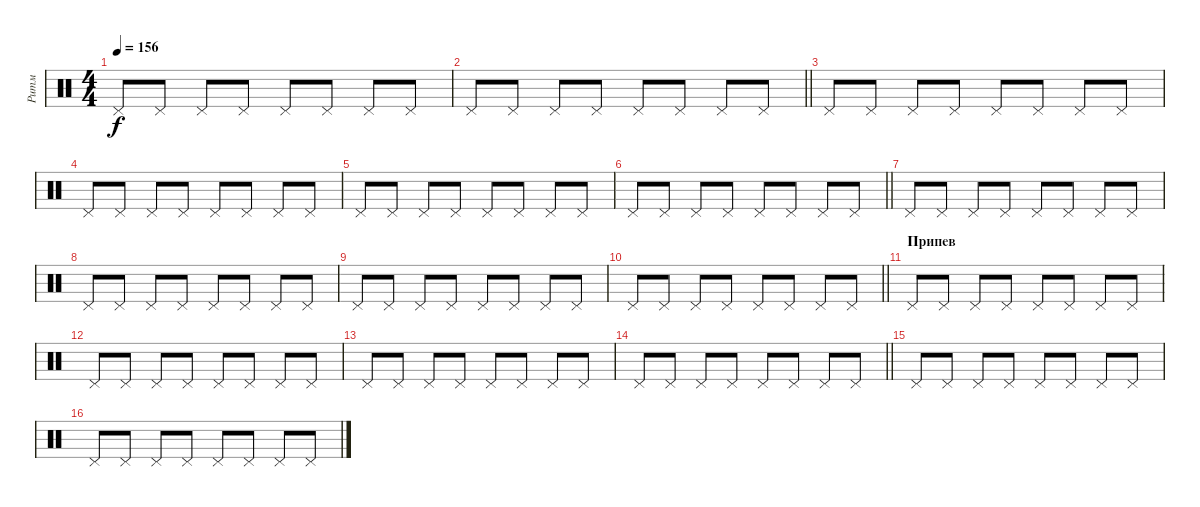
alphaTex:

\track ("Ритм" "Ритм") {instrument percussion}
\staff {score}
\articulation defaults
\ts (4 4)
\tempo 156
\clef neutral
\ks c "Pedal Hi-Hat (hit)".8{dy f} "Pedal Hi-Hat (hit)".8 "Pedal Hi-Hat (hit)".8 "Pedal Hi-Hat (hit)".8 "Pedal Hi-Hat (hit)".8 "Pedal Hi-Hat (hit)".8 "Pedal Hi-Hat (hit)".8 "Pedal Hi-Hat (hit)".8
|
\barLineRight lightlight "Pedal Hi-Hat (hit)".8 "Pedal Hi-Hat (hit)".8 "Pedal Hi-Hat (hit)".8 "Pedal Hi-Hat (hit)".8 "Pedal Hi-Hat (hit)".8 "Pedal Hi-Hat (hit)".8 "Pedal Hi-Hat (hit)".8 "Pedal Hi-Hat (hit)".8
|
"Pedal Hi-Hat (hit)".8 "Pedal Hi-Hat (hit)".8 "Pedal Hi-Hat (hit)".8 "Pedal Hi-Hat (hit)".8 "Pedal Hi-Hat (hit)".8 "Pedal Hi-Hat (hit)".8 "Pedal Hi-Hat (hit)".8 "Pedal Hi-Hat (hit)".8 |
"Pedal Hi-Hat (hit)".8 "Pedal Hi-Hat (hit)".8 "Pedal Hi-Hat (hit)".8 "Pedal Hi-Hat (hit)".8 "Pedal Hi-Hat (hit)".8 "Pedal Hi-Hat (hit)".8 "Pedal Hi-Hat (hit)".8 "Pedal Hi-Hat (hit)".8 |
"Pedal Hi-Hat (hit)".8 "Pedal Hi-Hat (hit)".8 "Pedal Hi-Hat (hit)".8 "Pedal Hi-Hat (hit)".8 "Pedal Hi-Hat (hit)".8 "Pedal Hi-Hat (hit)".8 "Pedal Hi-Hat (hit)".8 "Pedal Hi-Hat (hit)".8 |
\barLineRight lightlight "Pedal Hi-Hat (hit)".8 "Pedal Hi-Hat (hit)".8 "Pedal Hi-Hat (hit)".8 "Pedal Hi-Hat (hit)".8 "Pedal Hi-Hat (hit)".8 "Pedal Hi-Hat (hit)".8 "Pedal Hi-Hat (hit)".8 "Pedal Hi-Hat (hit)".8
|
"Pedal Hi-Hat (hit)".8 "Pedal Hi-Hat (hit)".8 "Pedal Hi-Hat (hit)".8 "Pedal Hi-Hat (hit)".8 "Pedal Hi-Hat (hit)".8 "Pedal Hi-Hat (hit)".8 "Pedal Hi-Hat (hit)".8 "Pedal Hi-Hat (hit)".8 |
"Pedal Hi-Hat (hit)".8 "Pedal Hi-Hat (hit)".8 "Pedal Hi-Hat (hit)".8 "Pedal Hi-Hat (hit)".8 "Pedal Hi-Hat (hit)".8 "Pedal Hi-Hat (hit)".8 "Pedal Hi-Hat (hit)".8 "Pedal Hi-Hat (hit)".8 |
"Pedal Hi-Hat (hit)".8 "Pedal Hi-Hat (hit)".8 "Pedal Hi-Hat (hit)".8 "Pedal Hi-Hat (hit)".8 "Pedal Hi-Hat (hit)".8 "Pedal Hi-Hat (hit)".8 "Pedal Hi-Hat (hit)".8 "Pedal Hi-Hat (hit)".8 |
\barLineRight lightlight "Pedal Hi-Hat (hit)".8 "Pedal Hi-Hat (hit)".8 "Pedal Hi-Hat (hit)".8 "Pedal Hi-Hat (hit)".8 "Pedal Hi-Hat (hit)".8 "Pedal Hi-Hat (hit)".8 "Pedal Hi-Hat (hit)".8 "Pedal Hi-Hat (hit)".8
|
\section ("" "Припев")
"Pedal Hi-Hat (hit)".8 "Pedal Hi-Hat (hit)".8 "Pedal Hi-Hat (hit)".8 "Pedal Hi-Hat (hit)".8 "Pedal Hi-Hat (hit)".8 "Pedal Hi-Hat (hit)".8 "Pedal Hi-Hat (hit)".8 "Pedal Hi-Hat (hit)".8 |
"Pedal Hi-Hat (hit)".8 "Pedal Hi-Hat (hit)".8 "Pedal Hi-Hat (hit)".8 "Pedal Hi-Hat (hit)".8 "Pedal Hi-Hat (hit)".8 "Pedal Hi-Hat (hit)".8 "Pedal Hi-Hat (hit)".8 "Pedal Hi-Hat (hit)".8 |
"Pedal Hi-Hat (hit)".8 "Pedal Hi-Hat (hit)".8 "Pedal Hi-Hat (hit)".8 "Pedal Hi-Hat (hit)".8 "Pedal Hi-Hat (hit)".8 "Pedal Hi-Hat (hit)".8 "Pedal Hi-Hat (hit)".8 "Pedal Hi-Hat (hit)".8 |
\barLineRight lightlight "Pedal Hi-Hat (hit)".8 "Pedal Hi-Hat (hit)".8 "Pedal Hi-Hat (hit)".8 "Pedal Hi-Hat (hit)".8 "Pedal Hi-Hat (hit)".8 "Pedal Hi-Hat (hit)".8 "Pedal Hi-Hat (hit)".8 "Pedal Hi-Hat (hit)".8
|
"Pedal Hi-Hat (hit)".8 "Pedal Hi-Hat (hit)".8 "Pedal Hi-Hat (hit)".8 "Pedal Hi-Hat (hit)".8 "Pedal Hi-Hat (hit)".8 "Pedal Hi-Hat (hit)".8 "Pedal Hi-Hat (hit)".8 "Pedal Hi-Hat (hit)".8 |
"Pedal Hi-Hat (hit)".8 "Pedal Hi-Hat (hit)".8 "Pedal Hi-Hat (hit)".8 "Pedal Hi-Hat (hit)".8 "Pedal Hi-Hat (hit)".8 "Pedal Hi-Hat (hit)".8 "Pedal Hi-Hat (hit)".8 "Pedal Hi-Hat (hit)".8
